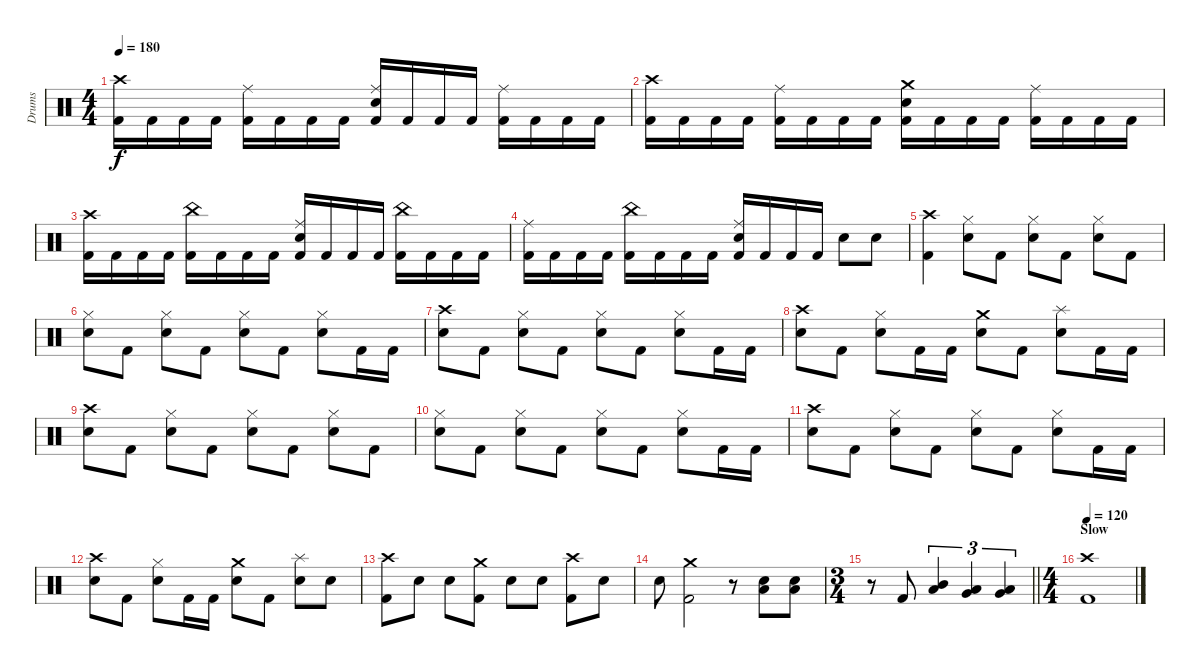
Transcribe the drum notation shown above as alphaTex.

\track ("Drums" "Drums") {instrument percussion}
\staff {score}
\articulation defaults
\ts (4 4)
\tempo 180
\clef neutral
\ks c
("Kick (hit) 2" "Crash high (hit)").16{dy f} "Kick (hit) 2".16 "Kick (hit) 2".16 "Kick (hit) 2".16 ("Kick (hit) 2" "Ride (middle)").16 "Kick (hit) 2".16 "Kick (hit) 2".16 "Kick (hit) 2".16 ("Kick (hit) 2" "Ride (middle)" "Electric Snare (hit)").16 "Kick (hit) 2".16 "Kick (hit) 2".16 "Kick (hit) 2".16 ("Kick (hit) 2" "Ride (middle)").16 "Kick (hit) 2".16 "Kick (hit) 2".16 "Kick (hit) 2".16 |
("Kick (hit) 2" "Crash high (hit)").16 "Kick (hit) 2".16 "Kick (hit) 2".16 "Kick (hit) 2".16 ("Kick (hit) 2" "Ride (middle)").16 "Kick (hit) 2".16 "Kick (hit) 2".16 "Kick (hit) 2".16 ("Kick (hit) 2" "Crash medium (hit)" "Electric Snare (hit)").16 "Kick (hit) 2".16 "Kick (hit) 2".16 "Kick (hit) 2".16 ("Kick (hit) 2" "Ride (middle)").16 "Kick (hit) 2".16 "Kick (hit) 2".16 "Kick (hit) 2".16 |
("Kick (hit) 2" "Crash high (hit)").16 "Kick (hit) 2".16 "Kick (hit) 2".16 "Kick (hit) 2".16 ("Kick (hit) 2" "China (hit)").16 "Kick (hit) 2".16 "Kick (hit) 2".16 "Kick (hit) 2".16 ("Kick (hit) 2" "Ride (middle)" "Electric Snare (hit)").16 "Kick (hit) 2".16 "Kick (hit) 2".16 "Kick (hit) 2".16 ("Kick (hit) 2" "China (hit)").16 "Kick (hit) 2".16 "Kick (hit) 2".16 "Kick (hit) 2".16 |
("Kick (hit) 2" "Ride (middle)").16 "Kick (hit) 2".16 "Kick (hit) 2".16 "Kick (hit) 2".16 ("Kick (hit) 2" "China (hit)").16 "Kick (hit) 2".16 "Kick (hit) 2".16 "Kick (hit) 2".16 ("Kick (hit) 2" "Ride (middle)" "Electric Snare (hit)").16 "Kick (hit) 2".16 "Kick (hit) 2".16 "Kick (hit) 2".16 "Electric Snare (hit)".8 "Electric Snare (hit)".8 |
("Kick (hit) 2" "Crash high (hit)").4 ("Hi-Hat (closed)" "Electric Snare (hit)").8 "Kick (hit) 2".8 ("Hi-Hat (closed)" "Electric Snare (hit)").8 "Kick (hit) 2".8 ("Hi-Hat (closed)" "Electric Snare (hit)").8 "Kick (hit) 2".8 |
("Hi-Hat (closed)" "Electric Snare (hit)").8 "Kick (hit) 2".8 ("Hi-Hat (closed)" "Electric Snare (hit)").8 "Kick (hit) 2".8 ("Hi-Hat (closed)" "Electric Snare (hit)").8 "Kick (hit) 2".8 ("Hi-Hat (closed)" "Electric Snare (hit)").8 "Kick (hit) 2".16 "Kick (hit) 2".16 |
("Crash high (hit)" "Electric Snare (hit)").8 "Kick (hit) 2".8 ("Hi-Hat (closed)" "Electric Snare (hit)").8 "Kick (hit) 2".8 ("Hi-Hat (closed)" "Electric Snare (hit)").8 "Kick (hit) 2".8 ("Hi-Hat (closed)" "Electric Snare (hit)").8 "Kick (hit) 2".16 "Kick (hit) 2".16 |
("Crash high (hit)" "Electric Snare (hit)").8 "Kick (hit) 2".8 ("Hi-Hat (closed)" "Electric Snare (hit)").8 "Kick (hit) 2".16 "Kick (hit) 2".16 ("Crash medium (hit)" "Electric Snare (hit)").8 "Kick (hit) 2".8 ("Splash (hit)" "Electric Snare (hit)").8 "Kick (hit) 2".16 "Kick (hit) 2".16 |
("Crash high (hit)" "Electric Snare (hit)").8 "Kick (hit) 2".8 ("Hi-Hat (closed)" "Electric Snare (hit)").8 "Kick (hit) 2".8 ("Hi-Hat (closed)" "Electric Snare (hit)").8 "Kick (hit) 2".8 ("Hi-Hat (closed)" "Electric Snare (hit)").8 "Kick (hit) 2".8 |
("Hi-Hat (closed)" "Electric Snare (hit)").8 "Kick (hit) 2".8 ("Hi-Hat (closed)" "Electric Snare (hit)").8 "Kick (hit) 2".8 ("Hi-Hat (closed)" "Electric Snare (hit)").8 "Kick (hit) 2".8 ("Hi-Hat (closed)" "Electric Snare (hit)").8 "Kick (hit) 2".16 "Kick (hit) 2".16 |
("Crash high (hit)" "Electric Snare (hit)").8 "Kick (hit) 2".8 ("Hi-Hat (closed)" "Electric Snare (hit)").8 "Kick (hit) 2".8 ("Hi-Hat (closed)" "Electric Snare (hit)").8 "Kick (hit) 2".8 ("Hi-Hat (closed)" "Electric Snare (hit)").8 "Kick (hit) 2".16 "Kick (hit) 2".16 |
("Crash high (hit)" "Electric Snare (hit)").8 "Kick (hit) 2".8 ("Hi-Hat (closed)" "Electric Snare (hit)").8 "Kick (hit) 2".16 "Kick (hit) 2".16 ("Crash medium (hit)" "Electric Snare (hit)").8 "Kick (hit) 2".8 ("Splash (hit)" "Electric Snare (hit)").8 "Electric Snare (hit)".8 |
("Kick (hit) 2" "Crash high (hit)").8 "Electric Snare (hit)".8 "Electric Snare (hit)".8 ("Kick (hit) 2" "Crash medium (hit)").8 "Electric Snare (hit)".8 "Electric Snare (hit)".8 ("Kick (hit) 2" "Crash high (hit)").8 "Electric Snare (hit)".8 |
"Electric Snare (hit)".8 ("Kick (hit) 2" "Crash medium (hit)").2 r.8 ("Low Tom (hit)" "Electric Snare (hit)").8 ("Low Tom (hit)" "Electric Snare (hit)").8 |
\ts (3 4)
\barLineRight lightlight
r.8 "Kick (hit) 2".8 ("Low Tom (hit)" "Mid Tom (hit)").4{tu (3 2)} ("Very Low Tom (hit)" "Low Tom (hit)").4{tu (3 2)} ("Low Floor Tom (hit)" "Very Low Tom (hit)").4{tu (3 2)} |
\ts (4 4)
\section ("" "Slow")
\tempo 120
("Kick (hit) 2" "Crash high (hit)").1
